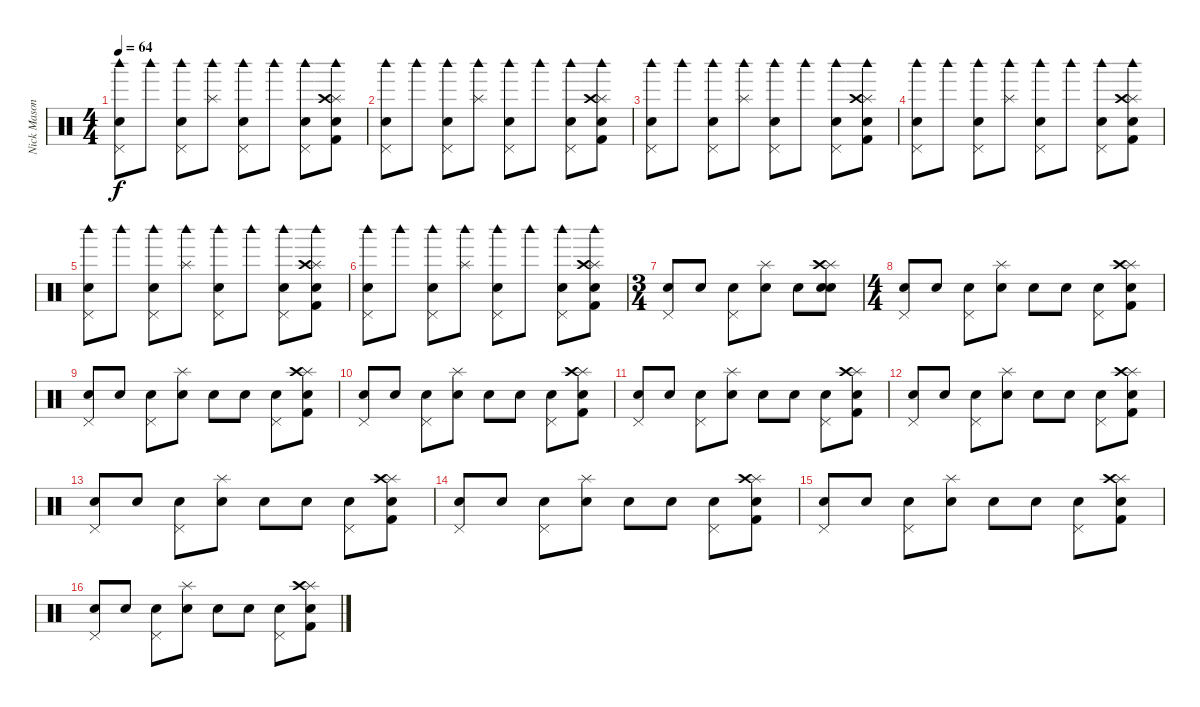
\track ("Nick Mason" "Nick Mason") {instrument percussion}
\staff {score}
\articulation defaults
\ts (4 4)
\tempo 64
\clef neutral
\ks c
("Woodblock high (hit)" "Pedal Hi-Hat (hit)" "Snare (hit) 2").8{dy f} "Woodblock high (hit)".8 ("Woodblock high (hit)" "Pedal Hi-Hat (hit)" "Snare (hit) 2").8 ("Woodblock high (hit)" "Splash (hit)").8 ("Woodblock high (hit)" "Pedal Hi-Hat (hit)" "Snare (hit) 2").8 "Woodblock high (hit)".8 ("Woodblock high (hit)" "Pedal Hi-Hat (hit)" "Snare (hit) 2").8 ("Woodblock high (hit)" "Splash (hit)" "Crash high (hit)" "Electric Snare (hit)" "Kick (hit) 2").8 |
("Woodblock high (hit)" "Pedal Hi-Hat (hit)" "Snare (hit) 2").8 "Woodblock high (hit)".8 ("Woodblock high (hit)" "Pedal Hi-Hat (hit)" "Snare (hit) 2").8 ("Woodblock high (hit)" "Splash (hit)").8 ("Woodblock high (hit)" "Pedal Hi-Hat (hit)" "Snare (hit) 2").8 "Woodblock high (hit)".8 ("Woodblock high (hit)" "Pedal Hi-Hat (hit)" "Snare (hit) 2").8 ("Woodblock high (hit)" "Splash (hit)" "Crash high (hit)" "Electric Snare (hit)" "Kick (hit) 2").8 |
("Woodblock high (hit)" "Pedal Hi-Hat (hit)" "Snare (hit) 2").8 "Woodblock high (hit)".8 ("Woodblock high (hit)" "Pedal Hi-Hat (hit)" "Snare (hit) 2").8 ("Woodblock high (hit)" "Splash (hit)").8 ("Woodblock high (hit)" "Pedal Hi-Hat (hit)" "Snare (hit) 2").8 "Woodblock high (hit)".8 ("Woodblock high (hit)" "Pedal Hi-Hat (hit)" "Snare (hit) 2").8 ("Woodblock high (hit)" "Splash (hit)" "Crash high (hit)" "Electric Snare (hit)" "Kick (hit) 2").8 |
("Woodblock high (hit)" "Pedal Hi-Hat (hit)" "Snare (hit) 2").8 "Woodblock high (hit)".8 ("Woodblock high (hit)" "Pedal Hi-Hat (hit)" "Snare (hit) 2").8 ("Woodblock high (hit)" "Splash (hit)").8 ("Woodblock high (hit)" "Pedal Hi-Hat (hit)" "Snare (hit) 2").8 "Woodblock high (hit)".8 ("Woodblock high (hit)" "Pedal Hi-Hat (hit)" "Snare (hit) 2").8 ("Woodblock high (hit)" "Splash (hit)" "Crash high (hit)" "Electric Snare (hit)" "Kick (hit) 2").8 |
("Woodblock high (hit)" "Pedal Hi-Hat (hit)" "Snare (hit) 2").8 "Woodblock high (hit)".8 ("Woodblock high (hit)" "Pedal Hi-Hat (hit)" "Snare (hit) 2").8 ("Woodblock high (hit)" "Splash (hit)").8 ("Woodblock high (hit)" "Pedal Hi-Hat (hit)" "Snare (hit) 2").8 "Woodblock high (hit)".8 ("Woodblock high (hit)" "Pedal Hi-Hat (hit)" "Snare (hit) 2").8 ("Woodblock high (hit)" "Splash (hit)" "Crash high (hit)" "Electric Snare (hit)" "Kick (hit) 2").8 |
("Woodblock high (hit)" "Pedal Hi-Hat (hit)" "Snare (hit) 2").8 "Woodblock high (hit)".8 ("Woodblock high (hit)" "Pedal Hi-Hat (hit)" "Snare (hit) 2").8 ("Woodblock high (hit)" "Splash (hit)").8 ("Woodblock high (hit)" "Pedal Hi-Hat (hit)" "Snare (hit) 2").8 "Woodblock high (hit)".8 ("Woodblock high (hit)" "Pedal Hi-Hat (hit)" "Snare (hit) 2").8 ("Woodblock high (hit)" "Splash (hit)" "Crash high (hit)" "Electric Snare (hit)" "Kick (hit) 2").8 |
\ts (3 4)
("Pedal Hi-Hat (hit)" "Snare (hit) 2").8 "Electric Snare (hit)".8 ("Pedal Hi-Hat (hit)" "Snare (hit) 2").8 ("Splash (hit)" "Electric Snare (hit)").8 "Snare (hit) 2".8 ("Splash (hit)" "Crash high (hit)" "Electric Snare (hit)" "Hand Clap (hit)").8 |
\ts (4 4)
("Pedal Hi-Hat (hit)" "Snare (hit) 2").8 "Electric Snare (hit)".8 ("Pedal Hi-Hat (hit)" "Snare (hit) 2").8 ("Splash (hit)" "Electric Snare (hit)").8 "Snare (hit) 2".8 "Electric Snare (hit)".8 ("Pedal Hi-Hat (hit)" "Snare (hit) 2").8 ("Splash (hit)" "Crash high (hit)" "Electric Snare (hit)" "Kick (hit) 2").8 |
("Pedal Hi-Hat (hit)" "Snare (hit) 2").8 "Electric Snare (hit)".8 ("Pedal Hi-Hat (hit)" "Snare (hit) 2").8 ("Splash (hit)" "Electric Snare (hit)").8 "Snare (hit) 2".8 "Electric Snare (hit)".8 ("Pedal Hi-Hat (hit)" "Snare (hit) 2").8 ("Splash (hit)" "Crash high (hit)" "Electric Snare (hit)" "Kick (hit) 2").8 |
("Pedal Hi-Hat (hit)" "Snare (hit) 2").8 "Electric Snare (hit)".8 ("Pedal Hi-Hat (hit)" "Snare (hit) 2").8 ("Splash (hit)" "Electric Snare (hit)").8 "Snare (hit) 2".8 "Electric Snare (hit)".8 ("Pedal Hi-Hat (hit)" "Snare (hit) 2").8 ("Splash (hit)" "Crash high (hit)" "Electric Snare (hit)" "Kick (hit) 2").8 |
("Pedal Hi-Hat (hit)" "Snare (hit) 2").8 "Electric Snare (hit)".8 ("Pedal Hi-Hat (hit)" "Snare (hit) 2").8 ("Splash (hit)" "Electric Snare (hit)").8 "Snare (hit) 2".8 "Electric Snare (hit)".8 ("Pedal Hi-Hat (hit)" "Snare (hit) 2").8 ("Splash (hit)" "Crash high (hit)" "Electric Snare (hit)" "Kick (hit) 2").8 |
("Pedal Hi-Hat (hit)" "Snare (hit) 2").8 "Electric Snare (hit)".8 ("Pedal Hi-Hat (hit)" "Snare (hit) 2").8 ("Splash (hit)" "Electric Snare (hit)").8 "Snare (hit) 2".8 "Electric Snare (hit)".8 ("Pedal Hi-Hat (hit)" "Snare (hit) 2").8 ("Splash (hit)" "Crash high (hit)" "Electric Snare (hit)" "Kick (hit) 2").8 |
("Pedal Hi-Hat (hit)" "Snare (hit) 2").8 "Electric Snare (hit)".8 ("Pedal Hi-Hat (hit)" "Snare (hit) 2").8 ("Splash (hit)" "Electric Snare (hit)").8 "Snare (hit) 2".8 "Electric Snare (hit)".8 ("Pedal Hi-Hat (hit)" "Snare (hit) 2").8 ("Splash (hit)" "Crash high (hit)" "Electric Snare (hit)" "Kick (hit) 2").8 |
("Pedal Hi-Hat (hit)" "Snare (hit) 2").8 "Electric Snare (hit)".8 ("Pedal Hi-Hat (hit)" "Snare (hit) 2").8 ("Splash (hit)" "Electric Snare (hit)").8 "Snare (hit) 2".8 "Electric Snare (hit)".8 ("Pedal Hi-Hat (hit)" "Snare (hit) 2").8 ("Splash (hit)" "Crash high (hit)" "Electric Snare (hit)" "Kick (hit) 2").8 |
("Pedal Hi-Hat (hit)" "Snare (hit) 2").8 "Electric Snare (hit)".8 ("Pedal Hi-Hat (hit)" "Snare (hit) 2").8 ("Splash (hit)" "Electric Snare (hit)").8 "Snare (hit) 2".8 "Electric Snare (hit)".8 ("Pedal Hi-Hat (hit)" "Snare (hit) 2").8 ("Splash (hit)" "Crash high (hit)" "Electric Snare (hit)" "Kick (hit) 2").8 |
("Pedal Hi-Hat (hit)" "Snare (hit) 2").8 "Electric Snare (hit)".8 ("Pedal Hi-Hat (hit)" "Snare (hit) 2").8 ("Splash (hit)" "Electric Snare (hit)").8 "Snare (hit) 2".8 "Electric Snare (hit)".8 ("Pedal Hi-Hat (hit)" "Snare (hit) 2").8 ("Splash (hit)" "Crash high (hit)" "Electric Snare (hit)" "Kick (hit) 2").8
